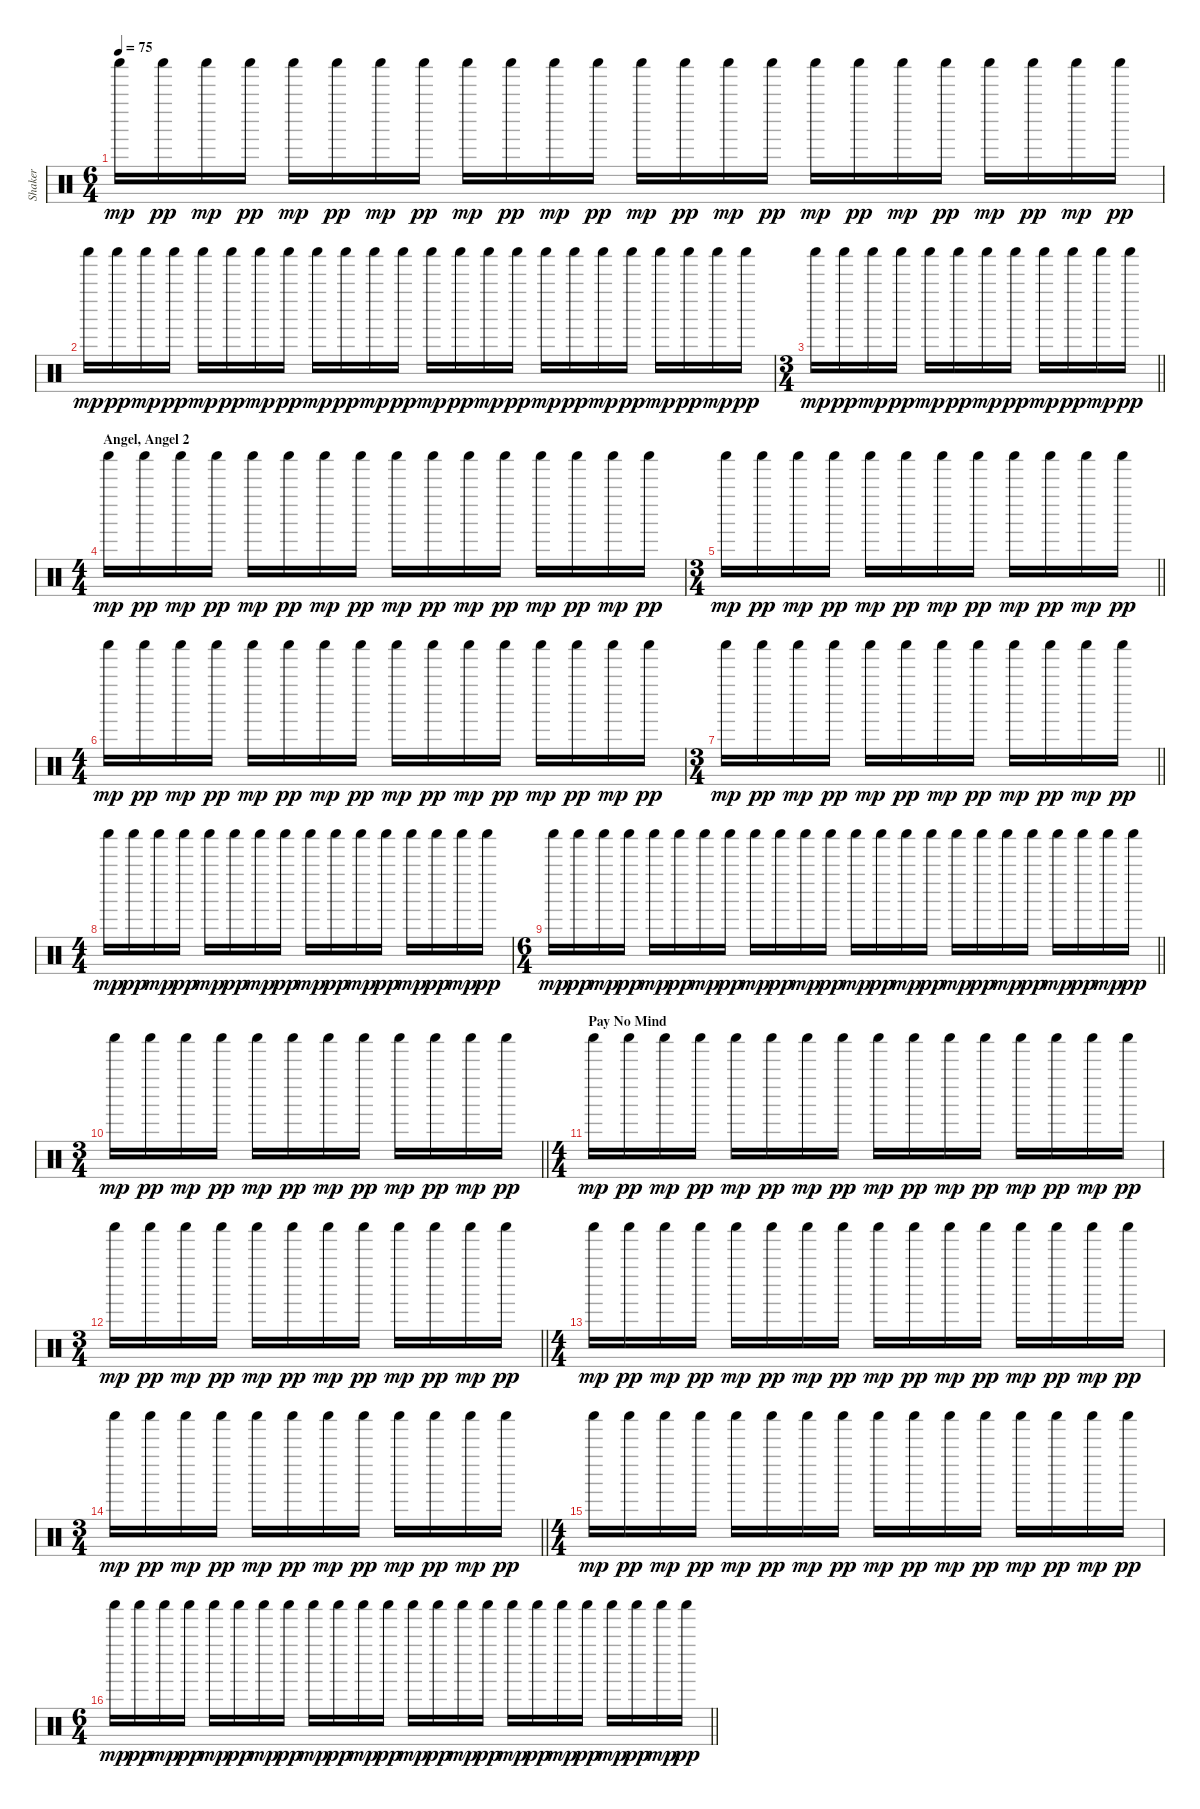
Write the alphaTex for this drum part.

\track ("Shaker" "Shaker") {instrument percussion}
\staff {score}
\articulation defaults
\ts (6 4)
\tempo 75
\clef neutral
\ks c "Shaker (hit)".16{dy mp} "Shaker (hit)".16{dy pp} "Shaker (hit)".16{dy mp} "Shaker (hit)".16{dy pp} "Shaker (hit)".16{dy mp} "Shaker (hit)".16{dy pp} "Shaker (hit)".16{dy mp} "Shaker (hit)".16{dy pp} "Shaker (hit)".16{dy mp} "Shaker (hit)".16{dy pp} "Shaker (hit)".16{dy mp} "Shaker (hit)".16{dy pp} "Shaker (hit)".16{dy mp} "Shaker (hit)".16{dy pp} "Shaker (hit)".16{dy mp} "Shaker (hit)".16{dy pp} "Shaker (hit)".16{dy mp} "Shaker (hit)".16{dy pp} "Shaker (hit)".16{dy mp} "Shaker (hit)".16{dy pp} "Shaker (hit)".16{dy mp} "Shaker (hit)".16{dy pp} "Shaker (hit)".16{dy mp} "Shaker (hit)".16{dy pp}
|
"Shaker (hit)".16{dy mp} "Shaker (hit)".16{dy pp} "Shaker (hit)".16{dy mp} "Shaker (hit)".16{dy pp} "Shaker (hit)".16{dy mp} "Shaker (hit)".16{dy pp} "Shaker (hit)".16{dy mp} "Shaker (hit)".16{dy pp} "Shaker (hit)".16{dy mp} "Shaker (hit)".16{dy pp} "Shaker (hit)".16{dy mp} "Shaker (hit)".16{dy pp} "Shaker (hit)".16{dy mp} "Shaker (hit)".16{dy pp} "Shaker (hit)".16{dy mp} "Shaker (hit)".16{dy pp} "Shaker (hit)".16{dy mp} "Shaker (hit)".16{dy pp} "Shaker (hit)".16{dy mp} "Shaker (hit)".16{dy pp} "Shaker (hit)".16{dy mp} "Shaker (hit)".16{dy pp} "Shaker (hit)".16{dy mp} "Shaker (hit)".16{dy pp} |
\ts (3 4)
\barLineRight lightlight "Shaker (hit)".16{dy mp} "Shaker (hit)".16{dy pp} "Shaker (hit)".16{dy mp} "Shaker (hit)".16{dy pp} "Shaker (hit)".16{dy mp} "Shaker (hit)".16{dy pp} "Shaker (hit)".16{dy mp} "Shaker (hit)".16{dy pp} "Shaker (hit)".16{dy mp} "Shaker (hit)".16{dy pp} "Shaker (hit)".16{dy mp} "Shaker (hit)".16{dy pp}
|
\ts (4 4)
\section ("" "Angel, Angel 2")
"Shaker (hit)".16{dy mp} "Shaker (hit)".16{dy pp} "Shaker (hit)".16{dy mp} "Shaker (hit)".16{dy pp} "Shaker (hit)".16{dy mp} "Shaker (hit)".16{dy pp} "Shaker (hit)".16{dy mp} "Shaker (hit)".16{dy pp} "Shaker (hit)".16{dy mp} "Shaker (hit)".16{dy pp} "Shaker (hit)".16{dy mp} "Shaker (hit)".16{dy pp} "Shaker (hit)".16{dy mp} "Shaker (hit)".16{dy pp} "Shaker (hit)".16{dy mp} "Shaker (hit)".16{dy pp} |
\ts (3 4)
\barLineRight lightlight "Shaker (hit)".16{dy mp} "Shaker (hit)".16{dy pp} "Shaker (hit)".16{dy mp} "Shaker (hit)".16{dy pp} "Shaker (hit)".16{dy mp} "Shaker (hit)".16{dy pp} "Shaker (hit)".16{dy mp} "Shaker (hit)".16{dy pp} "Shaker (hit)".16{dy mp} "Shaker (hit)".16{dy pp} "Shaker (hit)".16{dy mp} "Shaker (hit)".16{dy pp}
|
\ts (4 4)
"Shaker (hit)".16{dy mp} "Shaker (hit)".16{dy pp} "Shaker (hit)".16{dy mp} "Shaker (hit)".16{dy pp} "Shaker (hit)".16{dy mp} "Shaker (hit)".16{dy pp} "Shaker (hit)".16{dy mp} "Shaker (hit)".16{dy pp} "Shaker (hit)".16{dy mp} "Shaker (hit)".16{dy pp} "Shaker (hit)".16{dy mp} "Shaker (hit)".16{dy pp} "Shaker (hit)".16{dy mp} "Shaker (hit)".16{dy pp} "Shaker (hit)".16{dy mp} "Shaker (hit)".16{dy pp} |
\ts (3 4)
\barLineRight lightlight "Shaker (hit)".16{dy mp} "Shaker (hit)".16{dy pp} "Shaker (hit)".16{dy mp} "Shaker (hit)".16{dy pp} "Shaker (hit)".16{dy mp} "Shaker (hit)".16{dy pp} "Shaker (hit)".16{dy mp} "Shaker (hit)".16{dy pp} "Shaker (hit)".16{dy mp} "Shaker (hit)".16{dy pp} "Shaker (hit)".16{dy mp} "Shaker (hit)".16{dy pp}
|
\ts (4 4)
"Shaker (hit)".16{dy mp} "Shaker (hit)".16{dy pp} "Shaker (hit)".16{dy mp} "Shaker (hit)".16{dy pp} "Shaker (hit)".16{dy mp} "Shaker (hit)".16{dy pp} "Shaker (hit)".16{dy mp} "Shaker (hit)".16{dy pp} "Shaker (hit)".16{dy mp} "Shaker (hit)".16{dy pp} "Shaker (hit)".16{dy mp} "Shaker (hit)".16{dy pp} "Shaker (hit)".16{dy mp} "Shaker (hit)".16{dy pp} "Shaker (hit)".16{dy mp} "Shaker (hit)".16{dy pp} |
\ts (6 4)
\barLineRight lightlight "Shaker (hit)".16{dy mp} "Shaker (hit)".16{dy pp} "Shaker (hit)".16{dy mp} "Shaker (hit)".16{dy pp} "Shaker (hit)".16{dy mp} "Shaker (hit)".16{dy pp} "Shaker (hit)".16{dy mp} "Shaker (hit)".16{dy pp} "Shaker (hit)".16{dy mp} "Shaker (hit)".16{dy pp} "Shaker (hit)".16{dy mp} "Shaker (hit)".16{dy pp} "Shaker (hit)".16{dy mp} "Shaker (hit)".16{dy pp} "Shaker (hit)".16{dy mp} "Shaker (hit)".16{dy pp} "Shaker (hit)".16{dy mp} "Shaker (hit)".16{dy pp} "Shaker (hit)".16{dy mp} "Shaker (hit)".16{dy pp} "Shaker (hit)".16{dy mp} "Shaker (hit)".16{dy pp} "Shaker (hit)".16{dy mp} "Shaker (hit)".16{dy pp}
|
\ts (3 4)
\barLineRight lightlight "Shaker (hit)".16{dy mp} "Shaker (hit)".16{dy pp} "Shaker (hit)".16{dy mp} "Shaker (hit)".16{dy pp} "Shaker (hit)".16{dy mp} "Shaker (hit)".16{dy pp} "Shaker (hit)".16{dy mp} "Shaker (hit)".16{dy pp} "Shaker (hit)".16{dy mp} "Shaker (hit)".16{dy pp} "Shaker (hit)".16{dy mp} "Shaker (hit)".16{dy pp}
|
\ts (4 4)
\section ("" "Pay No Mind")
"Shaker (hit)".16{dy mp} "Shaker (hit)".16{dy pp} "Shaker (hit)".16{dy mp} "Shaker (hit)".16{dy pp} "Shaker (hit)".16{dy mp} "Shaker (hit)".16{dy pp} "Shaker (hit)".16{dy mp} "Shaker (hit)".16{dy pp} "Shaker (hit)".16{dy mp} "Shaker (hit)".16{dy pp} "Shaker (hit)".16{dy mp} "Shaker (hit)".16{dy pp} "Shaker (hit)".16{dy mp} "Shaker (hit)".16{dy pp} "Shaker (hit)".16{dy mp} "Shaker (hit)".16{dy pp} |
\ts (3 4)
\barLineRight lightlight "Shaker (hit)".16{dy mp} "Shaker (hit)".16{dy pp} "Shaker (hit)".16{dy mp} "Shaker (hit)".16{dy pp} "Shaker (hit)".16{dy mp} "Shaker (hit)".16{dy pp} "Shaker (hit)".16{dy mp} "Shaker (hit)".16{dy pp} "Shaker (hit)".16{dy mp} "Shaker (hit)".16{dy pp} "Shaker (hit)".16{dy mp} "Shaker (hit)".16{dy pp}
|
\ts (4 4)
"Shaker (hit)".16{dy mp} "Shaker (hit)".16{dy pp} "Shaker (hit)".16{dy mp} "Shaker (hit)".16{dy pp} "Shaker (hit)".16{dy mp} "Shaker (hit)".16{dy pp} "Shaker (hit)".16{dy mp} "Shaker (hit)".16{dy pp} "Shaker (hit)".16{dy mp} "Shaker (hit)".16{dy pp} "Shaker (hit)".16{dy mp} "Shaker (hit)".16{dy pp} "Shaker (hit)".16{dy mp} "Shaker (hit)".16{dy pp} "Shaker (hit)".16{dy mp} "Shaker (hit)".16{dy pp} |
\ts (3 4)
\barLineRight lightlight "Shaker (hit)".16{dy mp} "Shaker (hit)".16{dy pp} "Shaker (hit)".16{dy mp} "Shaker (hit)".16{dy pp} "Shaker (hit)".16{dy mp} "Shaker (hit)".16{dy pp} "Shaker (hit)".16{dy mp} "Shaker (hit)".16{dy pp} "Shaker (hit)".16{dy mp} "Shaker (hit)".16{dy pp} "Shaker (hit)".16{dy mp} "Shaker (hit)".16{dy pp}
|
\ts (4 4)
"Shaker (hit)".16{dy mp} "Shaker (hit)".16{dy pp} "Shaker (hit)".16{dy mp} "Shaker (hit)".16{dy pp} "Shaker (hit)".16{dy mp} "Shaker (hit)".16{dy pp} "Shaker (hit)".16{dy mp} "Shaker (hit)".16{dy pp} "Shaker (hit)".16{dy mp} "Shaker (hit)".16{dy pp} "Shaker (hit)".16{dy mp} "Shaker (hit)".16{dy pp} "Shaker (hit)".16{dy mp} "Shaker (hit)".16{dy pp} "Shaker (hit)".16{dy mp} "Shaker (hit)".16{dy pp} |
\ts (6 4)
\barLineRight lightlight "Shaker (hit)".16{dy mp} "Shaker (hit)".16{dy pp} "Shaker (hit)".16{dy mp} "Shaker (hit)".16{dy pp} "Shaker (hit)".16{dy mp} "Shaker (hit)".16{dy pp} "Shaker (hit)".16{dy mp} "Shaker (hit)".16{dy pp} "Shaker (hit)".16{dy mp} "Shaker (hit)".16{dy pp} "Shaker (hit)".16{dy mp} "Shaker (hit)".16{dy pp} "Shaker (hit)".16{dy mp} "Shaker (hit)".16{dy pp} "Shaker (hit)".16{dy mp} "Shaker (hit)".16{dy pp} "Shaker (hit)".16{dy mp} "Shaker (hit)".16{dy pp} "Shaker (hit)".16{dy mp} "Shaker (hit)".16{dy pp} "Shaker (hit)".16{dy mp} "Shaker (hit)".16{dy pp} "Shaker (hit)".16{dy mp} "Shaker (hit)".16{dy pp}
